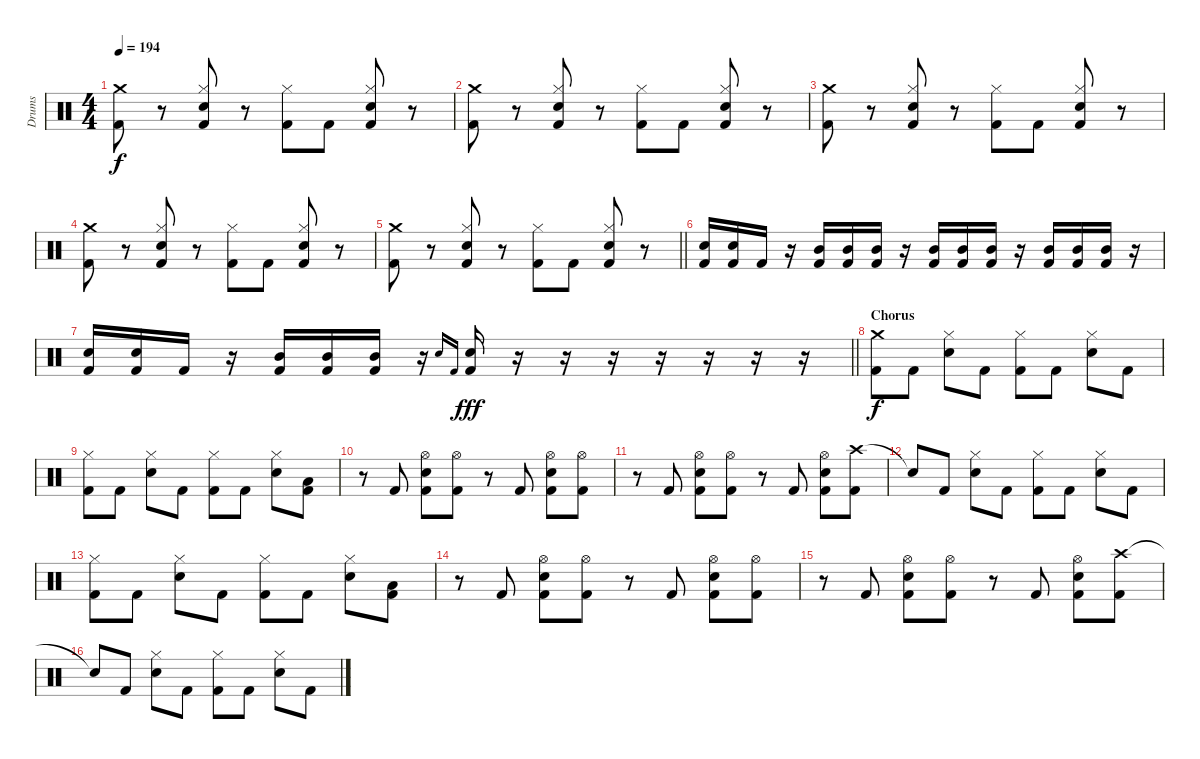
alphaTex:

\track ("Drums" "Drums") {instrument percussion}
\staff {score}
\articulation defaults
\ts (4 4)
\tempo 194
\clef neutral
\ks c
("Crash medium (hit)" "Kick (hit) 2").8{dy f} r.8 ("Hi-Hat (closed)" "Snare (hit) 2" "Kick (hit) 2").8 r.8 ("Hi-Hat (closed)" "Kick (hit) 2").8 "Kick (hit) 2".8 ("Hi-Hat (closed)" "Snare (hit) 2" "Kick (hit) 2").8 r.8 |
("Crash medium (hit)" "Kick (hit) 2").8 r.8 ("Hi-Hat (closed)" "Snare (hit) 2" "Kick (hit) 2").8 r.8 ("Hi-Hat (closed)" "Kick (hit) 2").8 "Kick (hit) 2".8 ("Hi-Hat (closed)" "Snare (hit) 2" "Kick (hit) 2").8 r.8 |
("Crash medium (hit)" "Kick (hit) 2").8 r.8 ("Hi-Hat (closed)" "Snare (hit) 2" "Kick (hit) 2").8 r.8 ("Hi-Hat (closed)" "Kick (hit) 2").8 "Kick (hit) 2".8 ("Hi-Hat (closed)" "Snare (hit) 2" "Kick (hit) 2").8 r.8 |
("Crash medium (hit)" "Kick (hit) 2").8 r.8 ("Hi-Hat (closed)" "Snare (hit) 2" "Kick (hit) 2").8 r.8 ("Hi-Hat (closed)" "Kick (hit) 2").8 "Kick (hit) 2".8 ("Hi-Hat (closed)" "Snare (hit) 2" "Kick (hit) 2").8 r.8 |
\barLineRight lightlight
("Crash medium (hit)" "Kick (hit) 2").8 r.8 ("Hi-Hat (closed)" "Snare (hit) 2" "Kick (hit) 2").8 r.8 ("Hi-Hat (closed)" "Kick (hit) 2").8 "Kick (hit) 2".8 ("Hi-Hat (closed)" "Snare (hit) 2" "Kick (hit) 2").8 r.8 |
("Snare (hit) 2" "Kick (hit) 2").16 ("Snare (hit) 2" "Kick (hit) 2").16 "Kick (hit) 2".16 r.16 ("Mid Tom (hit)" "Kick (hit) 2").16 ("Mid Tom (hit)" "Kick (hit) 2").16 ("Mid Tom (hit)" "Kick (hit) 2").16 r.16 ("Mid Tom (hit)" "Kick (hit) 2").16 ("Mid Tom (hit)" "Kick (hit) 2").16 ("Mid Tom (hit)" "Kick (hit) 2").16 r.16 ("Mid Tom (hit)" "Kick (hit) 2").16 ("Mid Tom (hit)" "Kick (hit) 2").16 ("Mid Tom (hit)" "Kick (hit) 2").16 r.16 |
\barLineRight lightlight
("Snare (hit) 2" "Kick (hit) 2").16 ("Snare (hit) 2" "Kick (hit) 2").16 "Kick (hit) 2".16 r.16 ("Mid Tom (hit)" "Kick (hit) 2").16 ("Mid Tom (hit)" "Kick (hit) 2").16 ("Mid Tom (hit)" "Kick (hit) 2").16 r.16 "Snare (hit) 2".16{gr onbeat} "Kick (hit) 2".16{gr onbeat} ("Snare (hit) 2" "Kick (hit) 2").16{dy fff} r.16 r.16 r.16 r.16 r.16 r.16 r.16 |
\section ("" "Chorus")
("Crash medium (hit)" "Kick (hit) 2").8{dy f} "Kick (hit) 2".8 ("Hi-Hat (closed)" "Snare (hit) 2").8 "Kick (hit) 2".8 ("Hi-Hat (closed)" "Kick (hit) 2").8 "Kick (hit) 2".8 ("Hi-Hat (closed)" "Snare (hit) 2").8 "Kick (hit) 2".8 |
("Hi-Hat (closed)" "Kick (hit) 2").8 "Kick (hit) 2".8 ("Hi-Hat (closed)" "Snare (hit) 2").8 "Kick (hit) 2".8 ("Hi-Hat (closed)" "Kick (hit) 2").8 "Kick (hit) 2".8 ("Hi-Hat (closed)" "Snare (hit) 2").8 ("Low Tom (hit)" "Kick (hit) 2").8 |
r.8 "Kick (hit) 2".8 ("Hi-Hat (open)" "Snare (hit) 2" "Kick (hit) 2").8 ("Hi-Hat (open)" "Kick (hit) 2").8 r.8 "Kick (hit) 2".8 ("Hi-Hat (open)" "Snare (hit) 2" "Kick (hit) 2").8 ("Hi-Hat (open)" "Kick (hit) 2").8 |
r.8 "Kick (hit) 2".8 ("Hi-Hat (open)" "Snare (hit) 2" "Kick (hit) 2").8 ("Hi-Hat (open)" "Kick (hit) 2").8 r.8 "Kick (hit) 2".8 ("Hi-Hat (open)" "Snare (hit) 2" "Kick (hit) 2").8 ("Crash high (hit)" "Kick (hit) 2").8 |
"Snare (hit)"{t}.8 "Kick (hit) 2".8 ("Hi-Hat (closed)" "Snare (hit) 2").8 "Kick (hit) 2".8 ("Hi-Hat (closed)" "Kick (hit) 2").8 "Kick (hit) 2".8 ("Hi-Hat (closed)" "Snare (hit) 2").8 "Kick (hit) 2".8 |
("Hi-Hat (closed)" "Kick (hit) 2").8 "Kick (hit) 2".8 ("Hi-Hat (closed)" "Snare (hit) 2").8 "Kick (hit) 2".8 ("Hi-Hat (closed)" "Kick (hit) 2").8 "Kick (hit) 2".8 ("Hi-Hat (closed)" "Snare (hit) 2").8 ("Low Tom (hit)" "Kick (hit) 2").8 |
r.8 "Kick (hit) 2".8 ("Hi-Hat (open)" "Snare (hit) 2" "Kick (hit) 2").8 ("Hi-Hat (open)" "Kick (hit) 2").8 r.8 "Kick (hit) 2".8 ("Hi-Hat (open)" "Snare (hit) 2" "Kick (hit) 2").8 ("Hi-Hat (open)" "Kick (hit) 2").8 |
r.8 "Kick (hit) 2".8 ("Hi-Hat (open)" "Snare (hit) 2" "Kick (hit) 2").8 ("Hi-Hat (open)" "Kick (hit) 2").8 r.8 "Kick (hit) 2".8 ("Hi-Hat (open)" "Snare (hit) 2" "Kick (hit) 2").8 ("Crash high (hit)" "Kick (hit) 2").8 |
"Snare (hit)"{t}.8 "Kick (hit) 2".8 ("Hi-Hat (closed)" "Snare (hit) 2").8 "Kick (hit) 2".8 ("Hi-Hat (closed)" "Kick (hit) 2").8 "Kick (hit) 2".8 ("Hi-Hat (closed)" "Snare (hit) 2").8 "Kick (hit) 2".8
